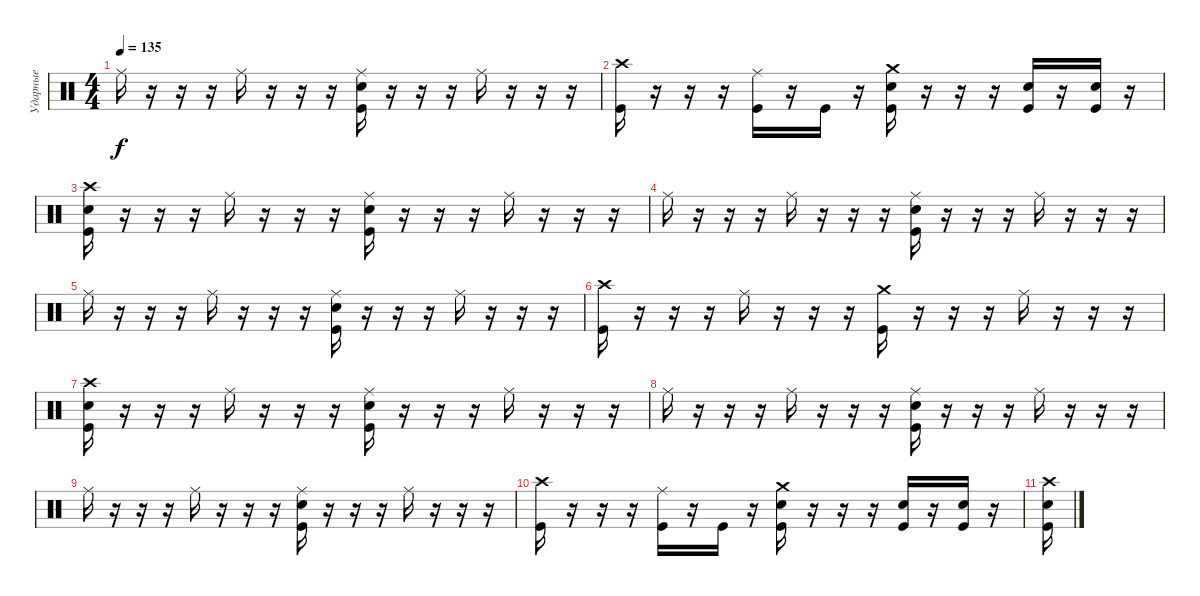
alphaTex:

\track ("Ударные" "Ударные") {instrument percussion}
\staff {score}
\articulation defaults
\ts (4 4)
\tempo 135
\clef neutral
\ks c "Ride (middle)".16{dy f}
r.16 r.16 r.16 "Ride (middle)".16 r.16 r.16 r.16 ("Ride (middle)" "Electric Snare (hit)" "Kick (hit)").16 r.16 r.16 r.16 "Ride (middle)".16 r.16 r.16 r.16 |
("Crash high (hit)" "Kick (hit)").16 r.16 r.16 r.16 ("Ride (middle)" "Kick (hit)").16 r.16 "Kick (hit)".16 r.16 ("Crash medium (hit)" "Electric Snare (hit)" "Kick (hit)").16 r.16 r.16 r.16 ("Electric Snare (hit)" "Kick (hit)").16 r.16 ("Electric Snare (hit)" "Kick (hit)").16 r.16 |
("Kick (hit)" "Crash high (hit)" "Electric Snare (hit)").16 r.16 r.16 r.16 "Ride (middle)".16 r.16 r.16 r.16 ("Ride (middle)" "Electric Snare (hit)" "Kick (hit)").16 r.16 r.16 r.16 "Ride (middle)".16 r.16 r.16 r.16 |
"Ride (middle)".16 r.16 r.16 r.16 "Ride (middle)".16 r.16 r.16 r.16 ("Ride (middle)" "Electric Snare (hit)" "Kick (hit)").16 r.16 r.16 r.16 "Ride (middle)".16 r.16 r.16 r.16 |
"Ride (middle)".16 r.16 r.16 r.16 "Ride (middle)".16 r.16 r.16 r.16 ("Ride (middle)" "Electric Snare (hit)" "Kick (hit)").16 r.16 r.16 r.16 "Ride (middle)".16 r.16 r.16 r.16 |
("Crash high (hit)" "Kick (hit)").16 r.16 r.16 r.16 "Ride (middle)".16 r.16 r.16 r.16 ("Crash medium (hit)" "Kick (hit)").16 r.16 r.16 r.16 "Ride (middle)".16 r.16 r.16 r.16 |
("Kick (hit)" "Crash high (hit)" "Electric Snare (hit)").16 r.16 r.16 r.16 "Ride (middle)".16 r.16 r.16 r.16 ("Ride (middle)" "Electric Snare (hit)" "Kick (hit)").16 r.16 r.16 r.16 "Ride (middle)".16 r.16 r.16 r.16 |
"Ride (middle)".16 r.16 r.16 r.16 "Ride (middle)".16 r.16 r.16 r.16 ("Ride (middle)" "Electric Snare (hit)" "Kick (hit)").16 r.16 r.16 r.16 "Ride (middle)".16 r.16 r.16 r.16 |
"Ride (middle)".16 r.16 r.16 r.16 "Ride (middle)".16 r.16 r.16 r.16 ("Ride (middle)" "Electric Snare (hit)" "Kick (hit)").16 r.16 r.16 r.16 "Ride (middle)".16 r.16 r.16 r.16 |
("Crash high (hit)" "Kick (hit)").16 r.16 r.16 r.16 ("Ride (middle)" "Kick (hit)").16 r.16 "Kick (hit)".16 r.16 ("Crash medium (hit)" "Electric Snare (hit)" "Kick (hit)").16 r.16 r.16 r.16 ("Electric Snare (hit)" "Kick (hit)").16 r.16 ("Electric Snare (hit)" "Kick (hit)").16 r.16 |
("Crash high (hit)" "Electric Snare (hit)" "Kick (hit)").16
